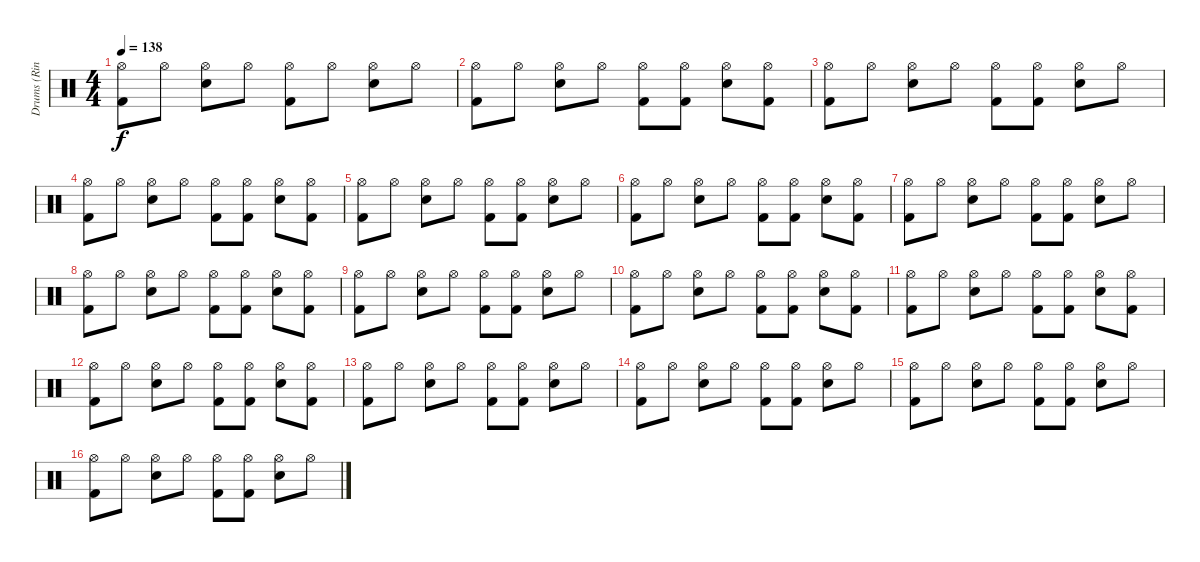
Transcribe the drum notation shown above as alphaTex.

\track ("Drums (Ringo Starr)" "Drums (Rin") {instrument percussion}
\staff {score}
\articulation defaults
\ts (4 4)
\tempo 138
\clef neutral
\ks c
("Hi-Hat (open)" "Kick (hit) 2").8{dy f} "Hi-Hat (open)".8 ("Hi-Hat (open)" "Snare (hit) 2").8 "Hi-Hat (open)".8 ("Hi-Hat (open)" "Kick (hit) 2").8 "Hi-Hat (open)".8 ("Hi-Hat (open)" "Snare (hit) 2").8 "Hi-Hat (open)".8 |
("Hi-Hat (open)" "Kick (hit) 2").8{volume 16} "Hi-Hat (open)".8 ("Hi-Hat (open)" "Snare (hit) 2").8 "Hi-Hat (open)".8 ("Hi-Hat (open)" "Kick (hit) 2").8 ("Hi-Hat (open)" "Kick (hit) 2").8 ("Hi-Hat (open)" "Snare (hit) 2").8 ("Hi-Hat (open)" "Kick (hit) 2").8 |
("Hi-Hat (open)" "Kick (hit) 2").8 "Hi-Hat (open)".8 ("Hi-Hat (open)" "Snare (hit) 2").8 "Hi-Hat (open)".8 ("Hi-Hat (open)" "Kick (hit) 2").8 ("Hi-Hat (open)" "Kick (hit) 2").8 ("Hi-Hat (open)" "Snare (hit) 2").8 "Hi-Hat (open)".8 |
("Hi-Hat (open)" "Kick (hit) 2").8 "Hi-Hat (open)".8 ("Hi-Hat (open)" "Snare (hit) 2").8 "Hi-Hat (open)".8 ("Hi-Hat (open)" "Kick (hit) 2").8 ("Hi-Hat (open)" "Kick (hit) 2").8 ("Hi-Hat (open)" "Snare (hit) 2").8 ("Hi-Hat (open)" "Kick (hit) 2").8 |
("Hi-Hat (open)" "Kick (hit) 2").8 "Hi-Hat (open)".8 ("Hi-Hat (open)" "Snare (hit) 2").8 "Hi-Hat (open)".8 ("Hi-Hat (open)" "Kick (hit) 2").8 ("Hi-Hat (open)" "Kick (hit) 2").8 ("Hi-Hat (open)" "Snare (hit) 2").8 "Hi-Hat (open)".8 |
("Hi-Hat (open)" "Kick (hit) 2").8 "Hi-Hat (open)".8 ("Hi-Hat (open)" "Snare (hit) 2").8 "Hi-Hat (open)".8 ("Hi-Hat (open)" "Kick (hit) 2").8 ("Hi-Hat (open)" "Kick (hit) 2").8 ("Hi-Hat (open)" "Snare (hit) 2").8 ("Hi-Hat (open)" "Kick (hit) 2").8 |
("Hi-Hat (open)" "Kick (hit) 2").8 "Hi-Hat (open)".8 ("Hi-Hat (open)" "Snare (hit) 2").8 "Hi-Hat (open)".8 ("Hi-Hat (open)" "Kick (hit) 2").8 ("Hi-Hat (open)" "Kick (hit) 2").8 ("Hi-Hat (open)" "Snare (hit) 2").8 "Hi-Hat (open)".8 |
("Hi-Hat (open)" "Kick (hit) 2").8 "Hi-Hat (open)".8 ("Hi-Hat (open)" "Snare (hit) 2").8 "Hi-Hat (open)".8 ("Hi-Hat (open)" "Kick (hit) 2").8 ("Hi-Hat (open)" "Kick (hit) 2").8 ("Hi-Hat (open)" "Snare (hit) 2").8 ("Hi-Hat (open)" "Kick (hit) 2").8 |
("Hi-Hat (open)" "Kick (hit) 2").8 "Hi-Hat (open)".8 ("Hi-Hat (open)" "Snare (hit) 2").8 "Hi-Hat (open)".8 ("Hi-Hat (open)" "Kick (hit) 2").8 ("Hi-Hat (open)" "Kick (hit) 2").8 ("Hi-Hat (open)" "Snare (hit) 2").8 "Hi-Hat (open)".8 |
("Hi-Hat (open)" "Kick (hit) 2").8 "Hi-Hat (open)".8 ("Hi-Hat (open)" "Snare (hit) 2").8 "Hi-Hat (open)".8 ("Hi-Hat (open)" "Kick (hit) 2").8 ("Hi-Hat (open)" "Kick (hit) 2").8 ("Hi-Hat (open)" "Snare (hit) 2").8 ("Hi-Hat (open)" "Kick (hit) 2").8 |
("Hi-Hat (open)" "Kick (hit) 2").8 "Hi-Hat (open)".8 ("Hi-Hat (open)" "Snare (hit) 2").8 "Hi-Hat (open)".8 ("Hi-Hat (open)" "Kick (hit) 2").8 ("Hi-Hat (open)" "Kick (hit) 2").8 ("Hi-Hat (open)" "Snare (hit) 2").8 ("Hi-Hat (open)" "Kick (hit) 2").8 |
("Hi-Hat (open)" "Kick (hit) 2").8 "Hi-Hat (open)".8 ("Hi-Hat (open)" "Snare (hit) 2").8 "Hi-Hat (open)".8 ("Hi-Hat (open)" "Kick (hit) 2").8 ("Hi-Hat (open)" "Kick (hit) 2").8 ("Hi-Hat (open)" "Snare (hit) 2").8 ("Hi-Hat (open)" "Kick (hit) 2").8 |
("Hi-Hat (open)" "Kick (hit) 2").8 "Hi-Hat (open)".8 ("Hi-Hat (open)" "Snare (hit) 2").8 "Hi-Hat (open)".8 ("Hi-Hat (open)" "Kick (hit) 2").8 ("Hi-Hat (open)" "Kick (hit) 2").8 ("Hi-Hat (open)" "Snare (hit) 2").8 "Hi-Hat (open)".8 |
("Hi-Hat (open)" "Kick (hit) 2").8 "Hi-Hat (open)".8 ("Hi-Hat (open)" "Snare (hit) 2").8 "Hi-Hat (open)".8 ("Hi-Hat (open)" "Kick (hit) 2").8 ("Hi-Hat (open)" "Kick (hit) 2").8 ("Hi-Hat (open)" "Snare (hit) 2").8 "Hi-Hat (open)".8 |
("Hi-Hat (open)" "Kick (hit) 2").8 "Hi-Hat (open)".8 ("Hi-Hat (open)" "Snare (hit) 2").8 "Hi-Hat (open)".8 ("Hi-Hat (open)" "Kick (hit) 2").8 ("Hi-Hat (open)" "Kick (hit) 2").8 ("Hi-Hat (open)" "Snare (hit) 2").8 "Hi-Hat (open)".8 |
("Hi-Hat (open)" "Kick (hit) 2").8 "Hi-Hat (open)".8 ("Hi-Hat (open)" "Snare (hit) 2").8 "Hi-Hat (open)".8 ("Hi-Hat (open)" "Kick (hit) 2").8 ("Hi-Hat (open)" "Kick (hit) 2").8 ("Hi-Hat (open)" "Snare (hit) 2").8 "Hi-Hat (open)".8
